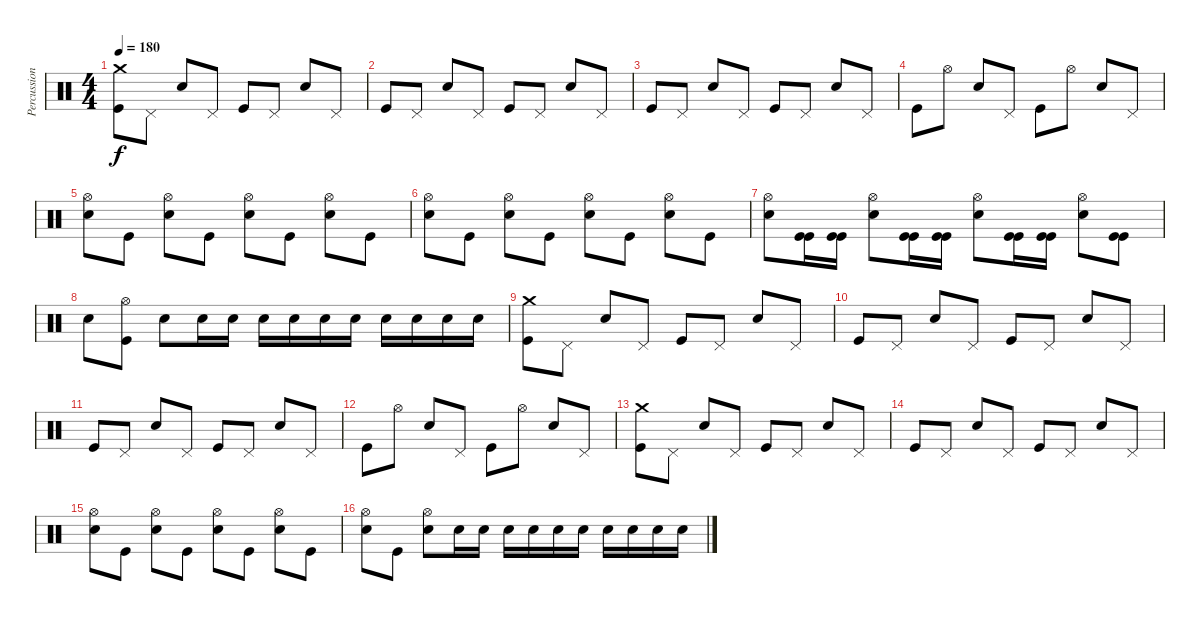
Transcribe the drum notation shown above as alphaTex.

\track ("Percussions" "Percussion") {instrument percussion}
\staff {score}
\articulation defaults
\ts (4 4)
\tempo 180
\clef neutral
\ks c
("Crash medium (hit)" "Kick (hit)").8{dy f} "Pedal Hi-Hat (hit)".8 "Snare (hit) 2".8 "Pedal Hi-Hat (hit)".8 "Kick (hit)".8 "Pedal Hi-Hat (hit)".8 "Snare (hit) 2".8 "Pedal Hi-Hat (hit)".8 |
"Kick (hit)".8 "Pedal Hi-Hat (hit)".8 "Snare (hit) 2".8 "Pedal Hi-Hat (hit)".8 "Kick (hit)".8 "Pedal Hi-Hat (hit)".8 "Snare (hit) 2".8 "Pedal Hi-Hat (hit)".8 |
"Kick (hit)".8 "Pedal Hi-Hat (hit)".8 "Snare (hit) 2".8 "Pedal Hi-Hat (hit)".8 "Kick (hit)".8 "Pedal Hi-Hat (hit)".8 "Snare (hit) 2".8 "Pedal Hi-Hat (hit)".8 |
"Kick (hit)".8 "Hi-Hat (open)".8 "Snare (hit) 2".8 "Pedal Hi-Hat (hit)".8 "Kick (hit)".8 "Hi-Hat (open)".8 "Snare (hit) 2".8 "Pedal Hi-Hat (hit)".8 |
("Hi-Hat (open)" "Snare (hit) 2").8 "Kick (hit)".8 ("Hi-Hat (open)" "Snare (hit) 2").8 "Kick (hit)".8 ("Hi-Hat (open)" "Snare (hit) 2").8 "Kick (hit)".8 ("Hi-Hat (open)" "Snare (hit) 2").8 "Kick (hit)".8 |
("Hi-Hat (open)" "Snare (hit) 2").8 "Kick (hit)".8 ("Hi-Hat (open)" "Snare (hit) 2").8 "Kick (hit)".8 ("Hi-Hat (open)" "Snare (hit) 2").8 "Kick (hit)".8 ("Hi-Hat (open)" "Snare (hit) 2").8 "Kick (hit)".8 |
("Hi-Hat (open)" "Snare (hit) 2").8 ("Kick (hit)" "Kick (hit)").16 ("Kick (hit)" "Kick (hit)").16 ("Hi-Hat (open)" "Snare (hit) 2").8 ("Kick (hit)" "Kick (hit)").16 ("Kick (hit)" "Kick (hit)").16 ("Hi-Hat (open)" "Snare (hit) 2").8 ("Kick (hit)" "Kick (hit)").16 ("Kick (hit)" "Kick (hit)").16 ("Hi-Hat (open)" "Snare (hit) 2").8 ("Kick (hit)" "Kick (hit)").8 |
"Snare (hit) 2".8 ("Hi-Hat (open)" "Kick (hit)").8 "Snare (hit) 2".8 "Snare (hit) 2".16 "Snare (hit) 2".16 "Snare (hit) 2".16 "Snare (hit) 2".16 "Snare (hit) 2".16 "Snare (hit) 2".16 "Snare (hit) 2".16 "Snare (hit) 2".16 "Snare (hit) 2".16 "Snare (hit) 2".16 |
("Crash medium (hit)" "Kick (hit)").8 "Pedal Hi-Hat (hit)".8 "Snare (hit) 2".8 "Pedal Hi-Hat (hit)".8 "Kick (hit)".8 "Pedal Hi-Hat (hit)".8 "Snare (hit) 2".8 "Pedal Hi-Hat (hit)".8 |
"Kick (hit)".8 "Pedal Hi-Hat (hit)".8 "Snare (hit) 2".8 "Pedal Hi-Hat (hit)".8 "Kick (hit)".8 "Pedal Hi-Hat (hit)".8 "Snare (hit) 2".8 "Pedal Hi-Hat (hit)".8 |
"Kick (hit)".8 "Pedal Hi-Hat (hit)".8 "Snare (hit) 2".8 "Pedal Hi-Hat (hit)".8 "Kick (hit)".8 "Pedal Hi-Hat (hit)".8 "Snare (hit) 2".8 "Pedal Hi-Hat (hit)".8 |
"Kick (hit)".8 "Hi-Hat (open)".8 "Snare (hit) 2".8 "Pedal Hi-Hat (hit)".8 "Kick (hit)".8 "Hi-Hat (open)".8 "Snare (hit) 2".8 "Pedal Hi-Hat (hit)".8 |
("Crash medium (hit)" "Kick (hit)").8 "Pedal Hi-Hat (hit)".8 "Snare (hit) 2".8 "Pedal Hi-Hat (hit)".8 "Kick (hit)".8 "Pedal Hi-Hat (hit)".8 "Snare (hit) 2".8 "Pedal Hi-Hat (hit)".8 |
"Kick (hit)".8 "Pedal Hi-Hat (hit)".8 "Snare (hit) 2".8 "Pedal Hi-Hat (hit)".8 "Kick (hit)".8 "Pedal Hi-Hat (hit)".8 "Snare (hit) 2".8 "Pedal Hi-Hat (hit)".8 |
("Hi-Hat (open)" "Snare (hit) 2").8 "Kick (hit)".8 ("Hi-Hat (open)" "Snare (hit) 2").8 "Kick (hit)".8 ("Hi-Hat (open)" "Snare (hit) 2").8 "Kick (hit)".8 ("Hi-Hat (open)" "Snare (hit) 2").8 "Kick (hit)".8 |
("Hi-Hat (open)" "Snare (hit) 2").8 "Kick (hit)".8 ("Hi-Hat (open)" "Snare (hit) 2").8 "Snare (hit) 2".16 "Snare (hit) 2".16 "Snare (hit) 2".16 "Snare (hit) 2".16 "Snare (hit) 2".16 "Snare (hit) 2".16 "Snare (hit) 2".16 "Snare (hit) 2".16 "Snare (hit) 2".16 "Snare (hit) 2".16
